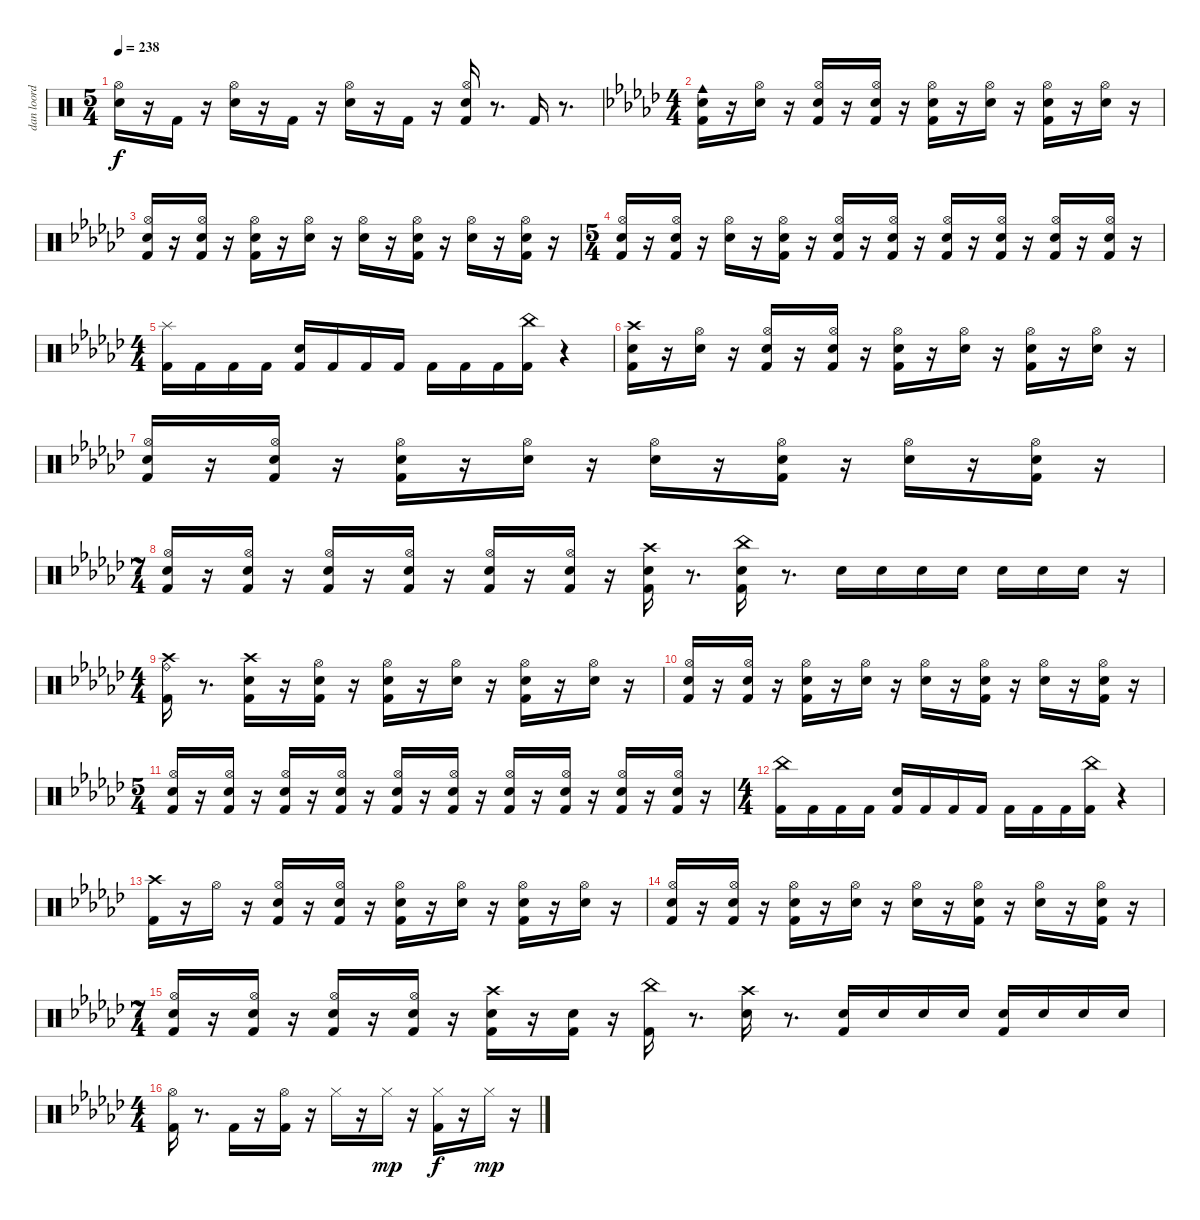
\track ("dan loord foord" "dan loord ") {instrument percussion}
\staff {score}
\articulation defaults
\ts (5 4)
\tempo 238
\clef neutral
\ks c
("Snare (hit) 2" "Hi-Hat (open)").16{dy f} r.16 "Kick (hit) 2".16 r.16 ("Snare (hit) 2" "Hi-Hat (open)").16 r.16 "Kick (hit) 2".16 r.16 ("Snare (hit) 2" "Hi-Hat (open)").16 r.16 "Kick (hit) 2".16 r.16 ("Kick (hit) 2" "Snare (hit) 2" "Hi-Hat (open)").16 r.8{d} "Kick (hit) 2".16 r.8{d} |
\ts (4 4)
\ks gb
("Kick (hit) 2" "Snare (hit) 2" "Cowbell medium (hit)").16 r.16 ("Snare (hit) 2" "Hi-Hat (open)").16 r.16 ("Kick (hit) 2" "Snare (hit) 2" "Hi-Hat (open)").16 r.16 ("Kick (hit) 2" "Snare (hit) 2" "Hi-Hat (open)").16 r.16 ("Kick (hit) 2" "Snare (hit) 2" "Hi-Hat (open)").16 r.16 ("Snare (hit) 2" "Hi-Hat (open)").16 r.16 ("Kick (hit) 2" "Snare (hit) 2" "Hi-Hat (open)").16 r.16 ("Snare (hit) 2" "Hi-Hat (open)").16 r.16 |
("Kick (hit) 2" "Snare (hit) 2" "Hi-Hat (open)").16 r.16 ("Kick (hit) 2" "Snare (hit) 2" "Hi-Hat (open)").16 r.16 ("Kick (hit) 2" "Snare (hit) 2" "Hi-Hat (open)").16 r.16 ("Snare (hit) 2" "Hi-Hat (open)").16 r.16 ("Snare (hit) 2" "Hi-Hat (open)").16 r.16 ("Kick (hit) 2" "Snare (hit) 2" "Hi-Hat (open)").16 r.16 ("Snare (hit) 2" "Hi-Hat (open)").16 r.16 ("Kick (hit) 2" "Snare (hit) 2" "Hi-Hat (open)").16 r.16 |
\ts (5 4)
("Kick (hit) 2" "Snare (hit) 2" "Hi-Hat (open)").16 r.16 ("Kick (hit) 2" "Snare (hit) 2" "Hi-Hat (open)").16 r.16 ("Snare (hit) 2" "Hi-Hat (open)").16 r.16 ("Kick (hit) 2" "Snare (hit) 2" "Hi-Hat (open)").16 r.16 ("Kick (hit) 2" "Snare (hit) 2" "Hi-Hat (open)").16 r.16 ("Kick (hit) 2" "Snare (hit) 2" "Hi-Hat (open)").16 r.16 ("Kick (hit) 2" "Snare (hit) 2" "Hi-Hat (open)").16 r.16 ("Kick (hit) 2" "Snare (hit) 2" "Hi-Hat (open)").16 r.16 ("Kick (hit) 2" "Snare (hit) 2" "Hi-Hat (open)").16 r.16 ("Kick (hit) 2" "Snare (hit) 2" "Hi-Hat (open)").16 r.16 |
\ts (4 4)
("Kick (hit) 2" "Splash (hit)").16 "Kick (hit) 2".16 "Kick (hit) 2".16 "Kick (hit) 2".16 ("Kick (hit) 2" "Snare (hit) 2").16 "Kick (hit) 2".16 "Kick (hit) 2".16 "Kick (hit) 2".16 "Kick (hit) 2".16 "Kick (hit) 2".16 "Kick (hit) 2".16 ("Kick (hit) 2" "China (hit)").16 r.4 |
("Kick (hit) 2" "Snare (hit) 2" "Crash high (hit)").16 r.16 ("Snare (hit) 2" "Hi-Hat (open)").16 r.16 ("Kick (hit) 2" "Snare (hit) 2" "Hi-Hat (open)").16 r.16 ("Kick (hit) 2" "Snare (hit) 2" "Hi-Hat (open)").16 r.16 ("Kick (hit) 2" "Snare (hit) 2" "Hi-Hat (open)").16 r.16 ("Snare (hit) 2" "Hi-Hat (open)").16 r.16 ("Kick (hit) 2" "Snare (hit) 2" "Hi-Hat (open)").16 r.16 ("Snare (hit) 2" "Hi-Hat (open)").16 r.16 |
("Kick (hit) 2" "Snare (hit) 2" "Hi-Hat (open)").16 r.16 ("Kick (hit) 2" "Snare (hit) 2" "Hi-Hat (open)").16 r.16 ("Kick (hit) 2" "Snare (hit) 2" "Hi-Hat (open)").16 r.16 ("Snare (hit) 2" "Hi-Hat (open)").16 r.16 ("Snare (hit) 2" "Hi-Hat (open)").16 r.16 ("Kick (hit) 2" "Snare (hit) 2" "Hi-Hat (open)").16 r.16 ("Snare (hit) 2" "Hi-Hat (open)").16 r.16 ("Kick (hit) 2" "Snare (hit) 2" "Hi-Hat (open)").16 r.16 |
\ts (7 4)
("Kick (hit) 2" "Snare (hit) 2" "Hi-Hat (open)").16 r.16 ("Kick (hit) 2" "Snare (hit) 2" "Hi-Hat (open)").16 r.16 ("Kick (hit) 2" "Snare (hit) 2" "Hi-Hat (open)").16 r.16 ("Kick (hit) 2" "Snare (hit) 2" "Hi-Hat (open)").16 r.16 ("Kick (hit) 2" "Snare (hit) 2" "Hi-Hat (open)").16 r.16 ("Kick (hit) 2" "Snare (hit) 2" "Hi-Hat (open)").16 r.16 ("Kick (hit) 2" "Snare (hit) 2" "Crash high (hit)").16 r.8{d} ("Kick (hit) 2" "Snare (hit) 2" "China (hit)").16 r.8{d} "Snare (hit) 2".16 "Snare (hit) 2".16 "Snare (hit) 2".16 "Snare (hit) 2".16 "Snare (hit) 2".16 "Snare (hit) 2".16 "Snare (hit) 2".16 r.16 |
\ts (4 4)
("Kick (hit) 2" "Crash high (hit)" "Ride (bell)").16 r.8{d} ("Kick (hit) 2" "Snare (hit) 2" "Crash high (hit)").16 r.16 ("Kick (hit) 2" "Snare (hit) 2" "Hi-Hat (open)").16 r.16 ("Kick (hit) 2" "Snare (hit) 2" "Hi-Hat (open)").16 r.16 ("Snare (hit) 2" "Hi-Hat (open)").16 r.16 ("Kick (hit) 2" "Snare (hit) 2" "Hi-Hat (open)").16 r.16 ("Snare (hit) 2" "Hi-Hat (open)").16 r.16 |
("Kick (hit) 2" "Snare (hit) 2" "Hi-Hat (open)").16 r.16 ("Kick (hit) 2" "Snare (hit) 2" "Hi-Hat (open)").16 r.16 ("Kick (hit) 2" "Snare (hit) 2" "Hi-Hat (open)").16 r.16 ("Snare (hit) 2" "Hi-Hat (open)").16 r.16 ("Snare (hit) 2" "Hi-Hat (open)").16 r.16 ("Kick (hit) 2" "Snare (hit) 2" "Hi-Hat (open)").16 r.16 ("Snare (hit) 2" "Hi-Hat (open)").16 r.16 ("Kick (hit) 2" "Snare (hit) 2" "Hi-Hat (open)").16 r.16 |
\ts (5 4)
("Kick (hit) 2" "Snare (hit) 2" "Hi-Hat (open)").16 r.16 ("Kick (hit) 2" "Snare (hit) 2" "Hi-Hat (open)").16 r.16 ("Kick (hit) 2" "Snare (hit) 2" "Hi-Hat (open)").16 r.16 ("Kick (hit) 2" "Snare (hit) 2" "Hi-Hat (open)").16 r.16 ("Kick (hit) 2" "Snare (hit) 2" "Hi-Hat (open)").16 r.16 ("Kick (hit) 2" "Snare (hit) 2" "Hi-Hat (open)").16 r.16 ("Kick (hit) 2" "Snare (hit) 2" "Hi-Hat (open)").16 r.16 ("Kick (hit) 2" "Snare (hit) 2" "Hi-Hat (open)").16 r.16 ("Kick (hit) 2" "Snare (hit) 2" "Hi-Hat (open)").16 r.16 ("Kick (hit) 2" "Snare (hit) 2" "Hi-Hat (open)").16 r.16 |
\ts (4 4)
("Kick (hit) 2" "China (hit)").16 "Kick (hit) 2".16 "Kick (hit) 2".16 "Kick (hit) 2".16 ("Kick (hit) 2" "Snare (hit) 2").16 "Kick (hit) 2".16 "Kick (hit) 2".16 "Kick (hit) 2".16 "Kick (hit) 2".16 "Kick (hit) 2".16 "Kick (hit) 2".16 ("Kick (hit) 2" "China (hit)").16 r.4 |
("Kick (hit) 2" "Crash high (hit)").16 r.16 "Hi-Hat (open)".16 r.16 ("Kick (hit) 2" "Snare (hit) 2" "Hi-Hat (open)").16 r.16 ("Kick (hit) 2" "Snare (hit) 2" "Hi-Hat (open)").16 r.16 ("Kick (hit) 2" "Snare (hit) 2" "Hi-Hat (open)").16 r.16 ("Snare (hit) 2" "Hi-Hat (open)").16 r.16 ("Kick (hit) 2" "Snare (hit) 2" "Hi-Hat (open)").16 r.16 ("Snare (hit) 2" "Hi-Hat (open)").16 r.16 |
("Kick (hit) 2" "Snare (hit) 2" "Hi-Hat (open)").16 r.16 ("Kick (hit) 2" "Snare (hit) 2" "Hi-Hat (open)").16 r.16 ("Kick (hit) 2" "Snare (hit) 2" "Hi-Hat (open)").16 r.16 ("Snare (hit) 2" "Hi-Hat (open)").16 r.16 ("Snare (hit) 2" "Hi-Hat (open)").16 r.16 ("Kick (hit) 2" "Snare (hit) 2" "Hi-Hat (open)").16 r.16 ("Snare (hit) 2" "Hi-Hat (open)").16 r.16 ("Kick (hit) 2" "Snare (hit) 2" "Hi-Hat (open)").16 r.16 |
\ts (7 4)
("Kick (hit) 2" "Snare (hit) 2" "Hi-Hat (open)").16 r.16 ("Kick (hit) 2" "Snare (hit) 2" "Hi-Hat (open)").16 r.16 ("Kick (hit) 2" "Snare (hit) 2" "Hi-Hat (open)").16 r.16 ("Kick (hit) 2" "Snare (hit) 2" "Hi-Hat (open)").16 r.16 ("Kick (hit) 2" "Snare (hit) 2" "Crash high (hit)").16 r.16 ("Kick (hit) 2" "Snare (hit) 2").16 r.16 ("Kick (hit) 2" "China (hit)").16 r.8{d} ("Snare (hit) 2" "Crash high (hit)").16 r.8{d} ("Kick (hit) 2" "Snare (hit) 2").16 "Snare (hit) 2".16 "Snare (hit) 2".16 "Snare (hit) 2".16 ("Kick (hit) 2" "Snare (hit) 2").16 "Snare (hit) 2".16 "Snare (hit) 2".16 "Snare (hit) 2".16 |
\ts (4 4)
("Kick (hit) 2" "Hi-Hat (open)").16 r.8{d} "Kick (hit) 2".16 r.16 ("Kick (hit) 2" "Hi-Hat (open)").16 r.16 "Hi-Hat (closed)".16 r.16 "Hi-Hat (closed)".16{dy mp} r.16 ("Kick (hit) 2" "Hi-Hat (closed)").16{dy f} r.16 "Hi-Hat (closed)".16{dy mp} r.16
